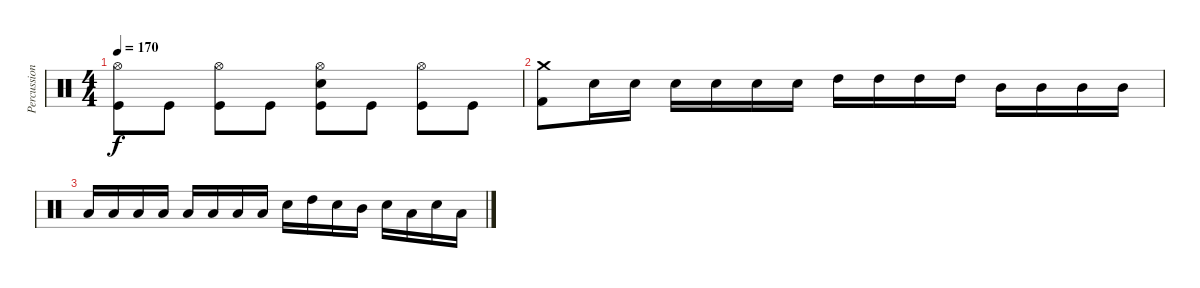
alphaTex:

\track ("Percussion" "Percussion") {instrument percussion}
\staff {score}
\articulation defaults
\ts (4 4)
\tempo 170
\clef neutral
\ks c
("Hi-Hat (open)" "Kick (hit)").8{dy f} "Kick (hit)".8 ("Hi-Hat (open)" "Kick (hit)").8 "Kick (hit)".8 ("Hi-Hat (open)" "Snare (hit) 2" "Kick (hit)").8 "Kick (hit)".8 ("Hi-Hat (open)" "Kick (hit)").8 "Kick (hit)".8 |
("Crash medium (hit)" "Kick (hit) 2").8 "Snare (hit) 2".16 "Snare (hit) 2".16 "Snare (hit) 2".16 "Snare (hit) 2".16 "Snare (hit) 2".16 "Snare (hit) 2".16 "High Tom (hit)".16 "High Tom (hit)".16 "High Tom (hit)".16 "High Tom (hit)".16 "Mid Tom (hit)".16 "Mid Tom (hit)".16 "Mid Tom (hit)".16 "Mid Tom (hit)".16 |
"Low Tom (hit)".16 "Low Tom (hit)".16 "Low Tom (hit)".16 "Low Tom (hit)".16 "Low Floor Tom (hit)".16 "Low Floor Tom (hit)".16 "Low Floor Tom (hit)".16 "Low Floor Tom (hit)".16 "Snare (hit) 2".16 "High Tom (hit)".16 "Snare (hit) 2".16 "Mid Tom (hit)".16 "Snare (hit) 2".16 "Low Tom (hit)".16 "Snare (hit) 2".16 "Low Floor Tom (hit)".16
